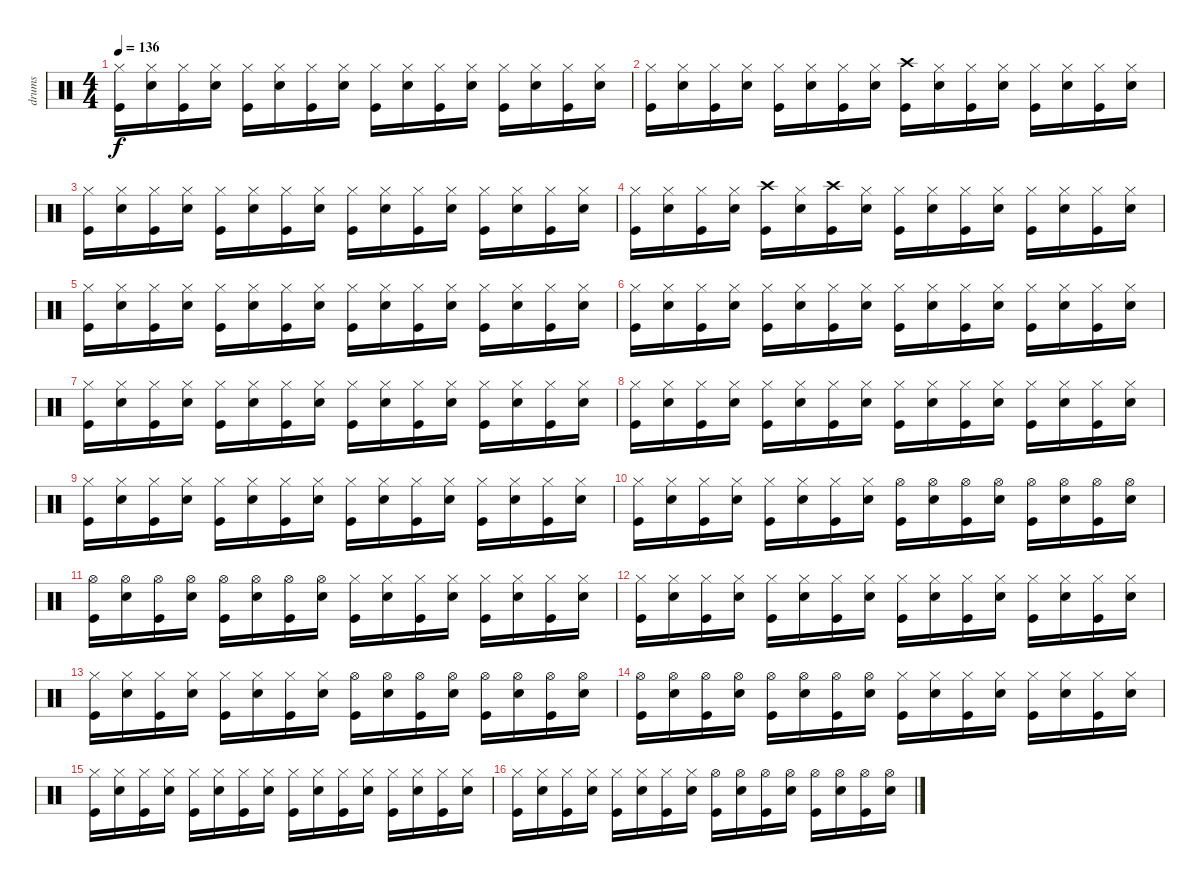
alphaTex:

\track ("drums" "drums") {instrument percussion}
\staff {score}
\articulation defaults
\ts (4 4)
\tempo 136
\clef neutral
\ks c
("Hi-Hat (closed)" "Kick (hit)").16{dy f} ("Hi-Hat (closed)" "Snare (hit) 2").16 ("Hi-Hat (closed)" "Kick (hit)").16 ("Hi-Hat (closed)" "Snare (hit) 2").16 ("Hi-Hat (closed)" "Kick (hit)").16 ("Hi-Hat (closed)" "Snare (hit) 2").16 ("Hi-Hat (closed)" "Kick (hit)").16 ("Hi-Hat (closed)" "Snare (hit) 2").16 ("Hi-Hat (closed)" "Kick (hit)").16 ("Hi-Hat (closed)" "Snare (hit) 2").16 ("Hi-Hat (closed)" "Kick (hit)").16 ("Hi-Hat (closed)" "Snare (hit) 2").16 ("Hi-Hat (closed)" "Kick (hit)").16 ("Hi-Hat (closed)" "Snare (hit) 2").16 ("Hi-Hat (closed)" "Kick (hit)").16 ("Hi-Hat (closed)" "Snare (hit) 2").16 |
("Hi-Hat (closed)" "Kick (hit)").16 ("Hi-Hat (closed)" "Snare (hit) 2").16 ("Hi-Hat (closed)" "Kick (hit)").16 ("Hi-Hat (closed)" "Snare (hit) 2").16 ("Hi-Hat (closed)" "Kick (hit)").16 ("Hi-Hat (closed)" "Snare (hit) 2").16 ("Hi-Hat (closed)" "Kick (hit)").16 ("Hi-Hat (closed)" "Snare (hit) 2").16 ("Crash high (hit)" "Kick (hit)").16 ("Hi-Hat (closed)" "Snare (hit) 2").16 ("Hi-Hat (closed)" "Kick (hit)").16 ("Hi-Hat (closed)" "Snare (hit) 2").16 ("Hi-Hat (closed)" "Kick (hit)").16 ("Hi-Hat (closed)" "Snare (hit) 2").16 ("Hi-Hat (closed)" "Kick (hit)").16 ("Hi-Hat (closed)" "Snare (hit) 2").16 |
("Hi-Hat (closed)" "Kick (hit)").16 ("Hi-Hat (closed)" "Snare (hit) 2").16 ("Hi-Hat (closed)" "Kick (hit)").16 ("Hi-Hat (closed)" "Snare (hit) 2").16 ("Hi-Hat (closed)" "Kick (hit)").16 ("Hi-Hat (closed)" "Snare (hit) 2").16 ("Hi-Hat (closed)" "Kick (hit)").16 ("Hi-Hat (closed)" "Snare (hit) 2").16 ("Hi-Hat (closed)" "Kick (hit)").16 ("Hi-Hat (closed)" "Snare (hit) 2").16 ("Hi-Hat (closed)" "Kick (hit)").16 ("Hi-Hat (closed)" "Snare (hit) 2").16 ("Hi-Hat (closed)" "Kick (hit)").16 ("Hi-Hat (closed)" "Snare (hit) 2").16 ("Hi-Hat (closed)" "Kick (hit)").16 ("Hi-Hat (closed)" "Snare (hit) 2").16 |
("Hi-Hat (closed)" "Kick (hit)").16 ("Hi-Hat (closed)" "Snare (hit) 2").16 ("Hi-Hat (closed)" "Kick (hit)").16 ("Hi-Hat (closed)" "Snare (hit) 2").16 ("Crash high (hit)" "Kick (hit)").16 ("Hi-Hat (closed)" "Snare (hit) 2").16 ("Crash high (hit)" "Kick (hit)").16 ("Hi-Hat (closed)" "Snare (hit) 2").16 ("Hi-Hat (closed)" "Kick (hit)").16 ("Hi-Hat (closed)" "Snare (hit) 2").16 ("Hi-Hat (closed)" "Kick (hit)").16 ("Hi-Hat (closed)" "Snare (hit) 2").16 ("Hi-Hat (closed)" "Kick (hit)").16 ("Hi-Hat (closed)" "Snare (hit) 2").16 ("Hi-Hat (closed)" "Kick (hit)").16 ("Hi-Hat (closed)" "Snare (hit) 2").16 |
("Hi-Hat (closed)" "Kick (hit)").16 ("Hi-Hat (closed)" "Snare (hit) 2").16 ("Hi-Hat (closed)" "Kick (hit)").16 ("Hi-Hat (closed)" "Snare (hit) 2").16 ("Hi-Hat (closed)" "Kick (hit)").16 ("Hi-Hat (closed)" "Snare (hit) 2").16 ("Hi-Hat (closed)" "Kick (hit)").16 ("Hi-Hat (closed)" "Snare (hit) 2").16 ("Hi-Hat (closed)" "Kick (hit)").16 ("Hi-Hat (closed)" "Snare (hit) 2").16 ("Hi-Hat (closed)" "Kick (hit)").16 ("Hi-Hat (closed)" "Snare (hit) 2").16 ("Hi-Hat (closed)" "Kick (hit)").16 ("Hi-Hat (closed)" "Snare (hit) 2").16 ("Hi-Hat (closed)" "Kick (hit)").16 ("Hi-Hat (closed)" "Snare (hit) 2").16 |
("Hi-Hat (closed)" "Kick (hit)").16 ("Hi-Hat (closed)" "Snare (hit) 2").16 ("Hi-Hat (closed)" "Kick (hit)").16 ("Hi-Hat (closed)" "Snare (hit) 2").16 ("Hi-Hat (closed)" "Kick (hit)").16 ("Hi-Hat (closed)" "Snare (hit) 2").16 ("Hi-Hat (closed)" "Kick (hit)").16 ("Hi-Hat (closed)" "Snare (hit) 2").16 ("Hi-Hat (closed)" "Kick (hit)").16 ("Hi-Hat (closed)" "Snare (hit) 2").16 ("Hi-Hat (closed)" "Kick (hit)").16 ("Hi-Hat (closed)" "Snare (hit) 2").16 ("Hi-Hat (closed)" "Kick (hit)").16 ("Hi-Hat (closed)" "Snare (hit) 2").16 ("Hi-Hat (closed)" "Kick (hit)").16 ("Hi-Hat (closed)" "Snare (hit) 2").16 |
("Hi-Hat (closed)" "Kick (hit)").16 ("Hi-Hat (closed)" "Snare (hit) 2").16 ("Hi-Hat (closed)" "Kick (hit)").16 ("Hi-Hat (closed)" "Snare (hit) 2").16 ("Hi-Hat (closed)" "Kick (hit)").16 ("Hi-Hat (closed)" "Snare (hit) 2").16 ("Hi-Hat (closed)" "Kick (hit)").16 ("Hi-Hat (closed)" "Snare (hit) 2").16 ("Hi-Hat (closed)" "Kick (hit)").16 ("Hi-Hat (closed)" "Snare (hit) 2").16 ("Hi-Hat (closed)" "Kick (hit)").16 ("Hi-Hat (closed)" "Snare (hit) 2").16 ("Hi-Hat (closed)" "Kick (hit)").16 ("Hi-Hat (closed)" "Snare (hit) 2").16 ("Hi-Hat (closed)" "Kick (hit)").16 ("Hi-Hat (closed)" "Snare (hit) 2").16 |
("Hi-Hat (closed)" "Kick (hit)").16 ("Hi-Hat (closed)" "Snare (hit) 2").16 ("Hi-Hat (closed)" "Kick (hit)").16 ("Hi-Hat (closed)" "Snare (hit) 2").16 ("Hi-Hat (closed)" "Kick (hit)").16 ("Hi-Hat (closed)" "Snare (hit) 2").16 ("Hi-Hat (closed)" "Kick (hit)").16 ("Hi-Hat (closed)" "Snare (hit) 2").16 ("Hi-Hat (closed)" "Kick (hit)").16 ("Hi-Hat (closed)" "Snare (hit) 2").16 ("Hi-Hat (closed)" "Kick (hit)").16 ("Hi-Hat (closed)" "Snare (hit) 2").16 ("Hi-Hat (closed)" "Kick (hit)").16 ("Hi-Hat (closed)" "Snare (hit) 2").16 ("Hi-Hat (closed)" "Kick (hit)").16 ("Hi-Hat (closed)" "Snare (hit) 2").16 |
("Hi-Hat (closed)" "Kick (hit)").16 ("Hi-Hat (closed)" "Snare (hit) 2").16 ("Hi-Hat (closed)" "Kick (hit)").16 ("Hi-Hat (closed)" "Snare (hit) 2").16 ("Hi-Hat (closed)" "Kick (hit)").16 ("Hi-Hat (closed)" "Snare (hit) 2").16 ("Hi-Hat (closed)" "Kick (hit)").16 ("Hi-Hat (closed)" "Snare (hit) 2").16 ("Hi-Hat (closed)" "Kick (hit)").16 ("Hi-Hat (closed)" "Snare (hit) 2").16 ("Hi-Hat (closed)" "Kick (hit)").16 ("Hi-Hat (closed)" "Snare (hit) 2").16 ("Hi-Hat (closed)" "Kick (hit)").16 ("Hi-Hat (closed)" "Snare (hit) 2").16 ("Hi-Hat (closed)" "Kick (hit)").16 ("Hi-Hat (closed)" "Snare (hit) 2").16 |
("Hi-Hat (closed)" "Kick (hit)").16 ("Hi-Hat (closed)" "Snare (hit) 2").16 ("Hi-Hat (closed)" "Kick (hit)").16 ("Hi-Hat (closed)" "Snare (hit) 2").16 ("Hi-Hat (closed)" "Kick (hit)").16 ("Hi-Hat (closed)" "Snare (hit) 2").16 ("Hi-Hat (closed)" "Kick (hit)").16 ("Hi-Hat (closed)" "Snare (hit) 2").16 ("Hi-Hat (open)" "Kick (hit)").16 ("Hi-Hat (open)" "Snare (hit) 2").16 ("Hi-Hat (open)" "Kick (hit)").16 ("Hi-Hat (open)" "Snare (hit) 2").16 ("Hi-Hat (open)" "Kick (hit)").16 ("Hi-Hat (open)" "Snare (hit) 2").16 ("Hi-Hat (open)" "Kick (hit)").16 ("Hi-Hat (open)" "Snare (hit) 2").16 |
("Hi-Hat (open)" "Kick (hit)").16 ("Hi-Hat (open)" "Snare (hit) 2").16 ("Hi-Hat (open)" "Kick (hit)").16 ("Hi-Hat (open)" "Snare (hit) 2").16 ("Hi-Hat (open)" "Kick (hit)").16 ("Hi-Hat (open)" "Snare (hit) 2").16 ("Hi-Hat (open)" "Kick (hit)").16 ("Hi-Hat (open)" "Snare (hit) 2").16 ("Hi-Hat (closed)" "Kick (hit)").16 ("Hi-Hat (closed)" "Snare (hit) 2").16 ("Hi-Hat (closed)" "Kick (hit)").16 ("Hi-Hat (closed)" "Snare (hit) 2").16 ("Hi-Hat (closed)" "Kick (hit)").16 ("Hi-Hat (closed)" "Snare (hit) 2").16 ("Hi-Hat (closed)" "Kick (hit)").16 ("Hi-Hat (closed)" "Snare (hit) 2").16 |
("Hi-Hat (closed)" "Kick (hit)").16 ("Hi-Hat (closed)" "Snare (hit) 2").16 ("Hi-Hat (closed)" "Kick (hit)").16 ("Hi-Hat (closed)" "Snare (hit) 2").16 ("Hi-Hat (closed)" "Kick (hit)").16 ("Hi-Hat (closed)" "Snare (hit) 2").16 ("Hi-Hat (closed)" "Kick (hit)").16 ("Hi-Hat (closed)" "Snare (hit) 2").16 ("Hi-Hat (closed)" "Kick (hit)").16 ("Hi-Hat (closed)" "Snare (hit) 2").16 ("Hi-Hat (closed)" "Kick (hit)").16 ("Hi-Hat (closed)" "Snare (hit) 2").16 ("Hi-Hat (closed)" "Kick (hit)").16 ("Hi-Hat (closed)" "Snare (hit) 2").16 ("Hi-Hat (closed)" "Kick (hit)").16 ("Hi-Hat (closed)" "Snare (hit) 2").16 |
("Hi-Hat (closed)" "Kick (hit)").16 ("Hi-Hat (closed)" "Snare (hit) 2").16 ("Hi-Hat (closed)" "Kick (hit)").16 ("Hi-Hat (closed)" "Snare (hit) 2").16 ("Hi-Hat (closed)" "Kick (hit)").16 ("Hi-Hat (closed)" "Snare (hit) 2").16 ("Hi-Hat (closed)" "Kick (hit)").16 ("Hi-Hat (closed)" "Snare (hit) 2").16 ("Hi-Hat (open)" "Kick (hit)").16 ("Hi-Hat (open)" "Snare (hit) 2").16 ("Hi-Hat (open)" "Kick (hit)").16 ("Hi-Hat (open)" "Snare (hit) 2").16 ("Hi-Hat (open)" "Kick (hit)").16 ("Hi-Hat (open)" "Snare (hit) 2").16 ("Hi-Hat (open)" "Kick (hit)").16 ("Hi-Hat (open)" "Snare (hit) 2").16 |
("Hi-Hat (open)" "Kick (hit)").16 ("Hi-Hat (open)" "Snare (hit) 2").16 ("Hi-Hat (open)" "Kick (hit)").16 ("Hi-Hat (open)" "Snare (hit) 2").16 ("Hi-Hat (open)" "Kick (hit)").16 ("Hi-Hat (open)" "Snare (hit) 2").16 ("Hi-Hat (open)" "Kick (hit)").16 ("Hi-Hat (open)" "Snare (hit) 2").16 ("Hi-Hat (closed)" "Kick (hit)").16 ("Hi-Hat (closed)" "Snare (hit) 2").16 ("Hi-Hat (closed)" "Kick (hit)").16 ("Hi-Hat (closed)" "Snare (hit) 2").16 ("Hi-Hat (closed)" "Kick (hit)").16 ("Hi-Hat (closed)" "Snare (hit) 2").16 ("Hi-Hat (closed)" "Kick (hit)").16 ("Hi-Hat (closed)" "Snare (hit) 2").16 |
("Hi-Hat (closed)" "Kick (hit)").16 ("Hi-Hat (closed)" "Snare (hit) 2").16 ("Hi-Hat (closed)" "Kick (hit)").16 ("Hi-Hat (closed)" "Snare (hit) 2").16 ("Hi-Hat (closed)" "Kick (hit)").16 ("Hi-Hat (closed)" "Snare (hit) 2").16 ("Hi-Hat (closed)" "Kick (hit)").16 ("Hi-Hat (closed)" "Snare (hit) 2").16 ("Hi-Hat (closed)" "Kick (hit)").16 ("Hi-Hat (closed)" "Snare (hit) 2").16 ("Hi-Hat (closed)" "Kick (hit)").16 ("Hi-Hat (closed)" "Snare (hit) 2").16 ("Hi-Hat (closed)" "Kick (hit)").16 ("Hi-Hat (closed)" "Snare (hit) 2").16 ("Hi-Hat (closed)" "Kick (hit)").16 ("Hi-Hat (closed)" "Snare (hit) 2").16 |
("Hi-Hat (closed)" "Kick (hit)").16 ("Hi-Hat (closed)" "Snare (hit) 2").16 ("Hi-Hat (closed)" "Kick (hit)").16 ("Hi-Hat (closed)" "Snare (hit) 2").16 ("Hi-Hat (closed)" "Kick (hit)").16 ("Hi-Hat (closed)" "Snare (hit) 2").16 ("Hi-Hat (closed)" "Kick (hit)").16 ("Hi-Hat (closed)" "Snare (hit) 2").16 ("Hi-Hat (open)" "Kick (hit)").16 ("Hi-Hat (open)" "Snare (hit) 2").16 ("Hi-Hat (open)" "Kick (hit)").16 ("Hi-Hat (open)" "Snare (hit) 2").16 ("Hi-Hat (open)" "Kick (hit)").16 ("Hi-Hat (open)" "Snare (hit) 2").16 ("Hi-Hat (open)" "Kick (hit)").16 ("Hi-Hat (open)" "Snare (hit) 2").16
